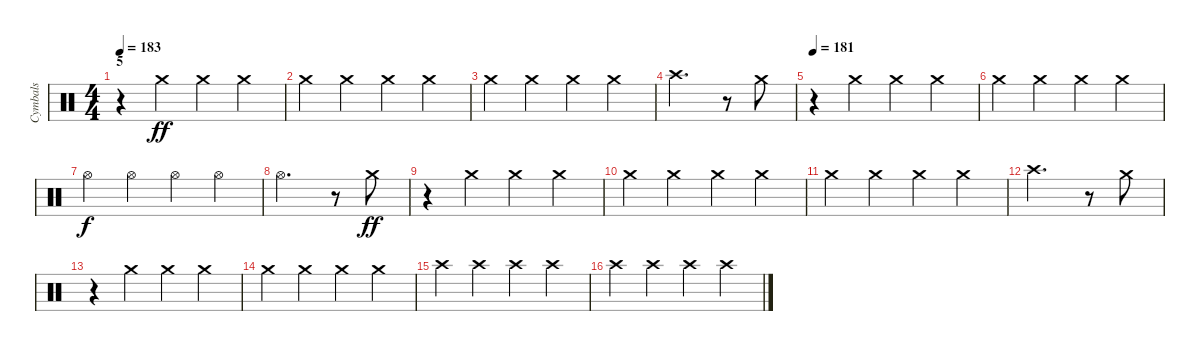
\track ("Cymbals" "Cymbals") {instrument percussion}
\staff {score}
\articulation defaults
\ts (4 4)
\section ("" "5")
\tempo 183
\clef neutral
\ks c
r.4{dy ff} "Crash medium (hit)".4 "Crash medium (hit)".4 "Crash medium (hit)".4 |
"Crash medium (hit)".4 "Crash medium (hit)".4 "Crash medium (hit)".4 "Crash medium (hit)".4 |
"Crash medium (hit)".4 "Crash medium (hit)".4 "Crash medium (hit)".4 "Crash medium (hit)".4 |
"Crash high (hit)".2{d} r.8 "Crash medium (hit)".8 |
\tempo 181
r.4 "Crash medium (hit)".4 "Crash medium (hit)".4 "Crash medium (hit)".4 |
"Crash medium (hit)".4 "Crash medium (hit)".4 "Crash medium (hit)".4 "Crash medium (hit)".4 |
"Hi-Hat (open)".4{dy f} "Hi-Hat (open)".4 "Hi-Hat (open)".4 "Hi-Hat (open)".4 |
"Hi-Hat (open)".2{d} r.8 "Crash medium (hit)".8{dy ff} |
r.4 "Crash medium (hit)".4 "Crash medium (hit)".4 "Crash medium (hit)".4 |
"Crash medium (hit)".4 "Crash medium (hit)".4 "Crash medium (hit)".4 "Crash medium (hit)".4 |
"Crash medium (hit)".4 "Crash medium (hit)".4 "Crash medium (hit)".4 "Crash medium (hit)".4 |
"Crash high (hit)".2{d} r.8 "Crash medium (hit)".8 |
r.4 "Crash medium (hit)".4 "Crash medium (hit)".4 "Crash medium (hit)".4 |
"Crash medium (hit)".4 "Crash medium (hit)".4 "Crash medium (hit)".4 "Crash medium (hit)".4 |
"Crash high (hit)".4 "Crash high (hit)".4 "Crash high (hit)".4 "Crash high (hit)".4 |
"Crash high (hit)".4 "Crash high (hit)".4 "Crash high (hit)".4 "Crash high (hit)".4
